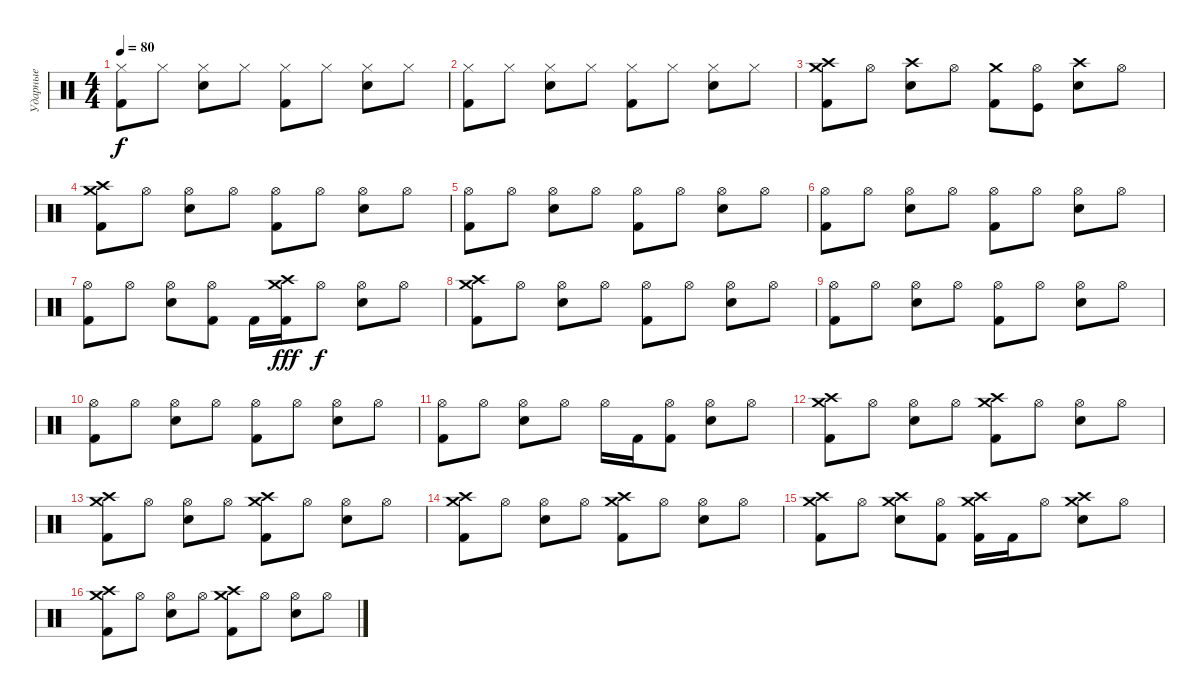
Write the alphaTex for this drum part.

\track ("Ударные" "Ударные") {instrument percussion}
\staff {score}
\articulation defaults
\ts (4 4)
\tempo 80
\clef neutral
\ks c
("Hi-Hat (closed)" "Kick (hit) 2").8{dy f} "Hi-Hat (closed)".8 ("Hi-Hat (closed)" "Snare (hit) 2").8 "Hi-Hat (closed)".8 ("Hi-Hat (closed)" "Kick (hit) 2").8 "Hi-Hat (closed)".8 ("Hi-Hat (closed)" "Snare (hit) 2").8 "Hi-Hat (closed)".8 |
("Hi-Hat (closed)" "Kick (hit) 2").8 "Hi-Hat (closed)".8 ("Hi-Hat (closed)" "Snare (hit) 2").8 "Hi-Hat (closed)".8 ("Hi-Hat (closed)" "Kick (hit) 2").8 "Hi-Hat (closed)".8 ("Hi-Hat (closed)" "Snare (hit) 2").8 "Hi-Hat (closed)".8 |
("Crash high (hit)" "Crash medium (hit)" "Kick (hit) 2").8 "Hi-Hat (open)".8 ("Crash high (hit)" "Snare (hit) 2").8 "Hi-Hat (open)".8 ("Crash medium (hit)" "Kick (hit) 2").8 ("Hi-Hat (open)" "Kick (hit)").8 ("Crash high (hit)" "Snare (hit) 2").8 "Hi-Hat (open)".8 |
("Crash high (hit)" "Crash medium (hit)" "Kick (hit) 2").8 "Hi-Hat (open)".8 ("Hi-Hat (open)" "Snare (hit) 2").8 "Hi-Hat (open)".8 ("Hi-Hat (open)" "Kick (hit) 2").8 "Hi-Hat (open)".8 ("Hi-Hat (open)" "Snare (hit) 2").8 "Hi-Hat (open)".8 |
("Hi-Hat (open)" "Kick (hit) 2").8 "Hi-Hat (open)".8 ("Hi-Hat (open)" "Snare (hit) 2").8 "Hi-Hat (open)".8 ("Hi-Hat (open)" "Kick (hit) 2").8 "Hi-Hat (open)".8 ("Hi-Hat (open)" "Snare (hit) 2").8 "Hi-Hat (open)".8 |
("Hi-Hat (open)" "Kick (hit) 2").8 "Hi-Hat (open)".8 ("Hi-Hat (open)" "Snare (hit) 2").8 "Hi-Hat (open)".8 ("Hi-Hat (open)" "Kick (hit) 2").8 "Hi-Hat (open)".8 ("Hi-Hat (open)" "Snare (hit) 2").8 "Hi-Hat (open)".8 |
("Hi-Hat (open)" "Kick (hit) 2").8 "Hi-Hat (open)".8 ("Hi-Hat (open)" "Snare (hit) 2").8 ("Hi-Hat (open)" "Kick (hit) 2").8 "Kick (hit) 2".16 ("Crash medium (hit)" "Crash high (hit)" "Kick (hit) 2").16{dy fff} "Hi-Hat (open)".8{dy f} ("Hi-Hat (open)" "Snare (hit) 2").8 "Hi-Hat (open)".8 |
("Crash high (hit)" "Crash medium (hit)" "Kick (hit) 2").8 "Hi-Hat (open)".8 ("Hi-Hat (open)" "Snare (hit) 2").8 "Hi-Hat (open)".8 ("Hi-Hat (open)" "Kick (hit) 2").8 "Hi-Hat (open)".8 ("Hi-Hat (open)" "Snare (hit) 2").8 "Hi-Hat (open)".8 |
("Hi-Hat (open)" "Kick (hit) 2").8 "Hi-Hat (open)".8 ("Hi-Hat (open)" "Snare (hit) 2").8 "Hi-Hat (open)".8 ("Hi-Hat (open)" "Kick (hit) 2").8 "Hi-Hat (open)".8 ("Hi-Hat (open)" "Snare (hit) 2").8 "Hi-Hat (open)".8 |
("Hi-Hat (open)" "Kick (hit) 2").8 "Hi-Hat (open)".8 ("Hi-Hat (open)" "Snare (hit) 2").8 "Hi-Hat (open)".8 ("Hi-Hat (open)" "Kick (hit) 2").8 "Hi-Hat (open)".8 ("Hi-Hat (open)" "Snare (hit) 2").8 "Hi-Hat (open)".8 |
("Hi-Hat (open)" "Kick (hit) 2").8 "Hi-Hat (open)".8 ("Hi-Hat (open)" "Snare (hit) 2").8 "Hi-Hat (open)".8 "Hi-Hat (open)".16 "Kick (hit) 2".16 ("Hi-Hat (open)" "Kick (hit) 2").8 ("Hi-Hat (open)" "Snare (hit) 2").8 "Hi-Hat (open)".8 |
("Crash high (hit)" "Crash medium (hit)" "Kick (hit) 2").8 "Hi-Hat (open)".8 ("Hi-Hat (open)" "Snare (hit) 2").8 "Hi-Hat (open)".8 ("Crash high (hit)" "Crash medium (hit)" "Kick (hit) 2").8 "Hi-Hat (open)".8 ("Hi-Hat (open)" "Snare (hit) 2").8 "Hi-Hat (open)".8 |
("Crash high (hit)" "Crash medium (hit)" "Kick (hit) 2").8 "Hi-Hat (open)".8 ("Hi-Hat (open)" "Snare (hit) 2").8 "Hi-Hat (open)".8 ("Crash high (hit)" "Crash medium (hit)" "Kick (hit) 2").8 "Hi-Hat (open)".8 ("Hi-Hat (open)" "Snare (hit) 2").8 "Hi-Hat (open)".8 |
("Crash high (hit)" "Crash medium (hit)" "Kick (hit) 2").8 "Hi-Hat (open)".8 ("Hi-Hat (open)" "Snare (hit) 2").8 "Hi-Hat (open)".8 ("Crash high (hit)" "Crash medium (hit)" "Kick (hit) 2").8 "Hi-Hat (open)".8 ("Hi-Hat (open)" "Snare (hit) 2").8 "Hi-Hat (open)".8 |
("Crash high (hit)" "Crash medium (hit)" "Kick (hit) 2").8 "Hi-Hat (open)".8 ("Crash high (hit)" "Snare (hit) 2" "Crash medium (hit)").8 ("Hi-Hat (open)" "Kick (hit) 2").8 ("Crash high (hit)" "Crash medium (hit)" "Kick (hit) 2").16 "Kick (hit) 2".16 "Hi-Hat (open)".8 ("Crash high (hit)" "Snare (hit) 2" "Crash medium (hit)").8 "Hi-Hat (open)".8 |
("Crash high (hit)" "Crash medium (hit)" "Kick (hit) 2").8 "Hi-Hat (open)".8 ("Hi-Hat (open)" "Snare (hit) 2").8 "Hi-Hat (open)".8 ("Crash high (hit)" "Crash medium (hit)" "Kick (hit) 2").8 "Hi-Hat (open)".8 ("Hi-Hat (open)" "Snare (hit) 2").8 "Hi-Hat (open)".8
